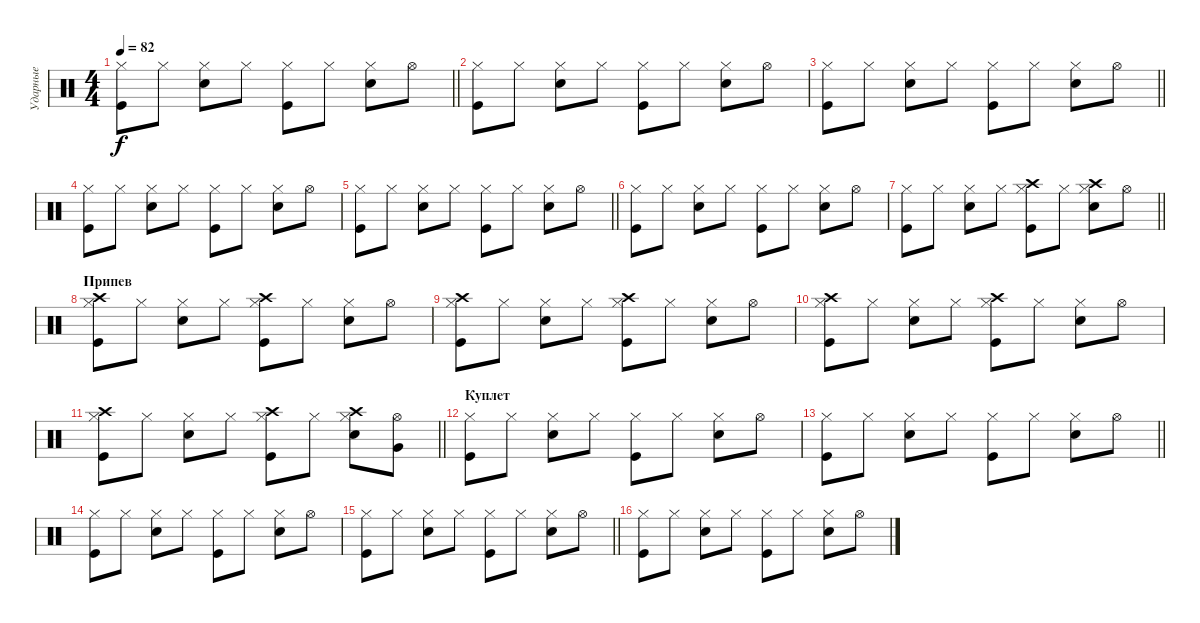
\track ("Ударные" "Ударные") {instrument percussion}
\staff {score}
\articulation defaults
\ts (4 4)
\tempo 82
\clef neutral
\barLineRight lightlight
\ks c
("Kick (hit)" "Hi-Hat (closed)").8{dy f} "Hi-Hat (closed)".8 ("Electric Snare (hit)" "Hi-Hat (closed)").8 "Hi-Hat (closed)".8 ("Kick (hit)" "Hi-Hat (closed)").8 "Hi-Hat (closed)".8 ("Electric Snare (hit)" "Hi-Hat (closed)").8 "Hi-Hat (open)".8 |
("Kick (hit)" "Hi-Hat (closed)").8 "Hi-Hat (closed)".8 ("Electric Snare (hit)" "Hi-Hat (closed)").8 "Hi-Hat (closed)".8 ("Kick (hit)" "Hi-Hat (closed)").8 "Hi-Hat (closed)".8 ("Electric Snare (hit)" "Hi-Hat (closed)").8 "Hi-Hat (open)".8 |
\barLineRight lightlight
("Kick (hit)" "Hi-Hat (closed)").8 "Hi-Hat (closed)".8 ("Electric Snare (hit)" "Hi-Hat (closed)").8 "Hi-Hat (closed)".8 ("Kick (hit)" "Hi-Hat (closed)").8 "Hi-Hat (closed)".8 ("Electric Snare (hit)" "Hi-Hat (closed)").8 "Hi-Hat (open)".8 |
("Kick (hit)" "Hi-Hat (closed)").8 "Hi-Hat (closed)".8 ("Electric Snare (hit)" "Hi-Hat (closed)").8 "Hi-Hat (closed)".8 ("Kick (hit)" "Hi-Hat (closed)").8 "Hi-Hat (closed)".8 ("Electric Snare (hit)" "Hi-Hat (closed)").8 "Hi-Hat (open)".8 |
\barLineRight lightlight
("Kick (hit)" "Hi-Hat (closed)").8 "Hi-Hat (closed)".8 ("Electric Snare (hit)" "Hi-Hat (closed)").8 "Hi-Hat (closed)".8 ("Kick (hit)" "Hi-Hat (closed)").8 "Hi-Hat (closed)".8 ("Electric Snare (hit)" "Hi-Hat (closed)").8 "Hi-Hat (open)".8 |
("Kick (hit)" "Hi-Hat (closed)").8 "Hi-Hat (closed)".8 ("Electric Snare (hit)" "Hi-Hat (closed)").8 "Hi-Hat (closed)".8 ("Kick (hit)" "Hi-Hat (closed)").8 "Hi-Hat (closed)".8 ("Electric Snare (hit)" "Hi-Hat (closed)").8 "Hi-Hat (open)".8 |
\barLineRight lightlight
("Kick (hit)" "Hi-Hat (closed)").8 "Hi-Hat (closed)".8 ("Electric Snare (hit)" "Hi-Hat (closed)").8 "Hi-Hat (closed)".8 ("Kick (hit)" "Crash high (hit)" "Hi-Hat (closed)").8 "Hi-Hat (closed)".8 ("Electric Snare (hit)" "Crash high (hit)" "Hi-Hat (closed)").8 "Hi-Hat (open)".8 |
\section ("" "Припев")
("Kick (hit)" "Crash high (hit)" "Hi-Hat (closed)").8 "Hi-Hat (closed)".8 ("Electric Snare (hit)" "Hi-Hat (closed)").8 "Hi-Hat (closed)".8 ("Kick (hit)" "Crash high (hit)" "Hi-Hat (closed)").8 "Hi-Hat (closed)".8 ("Electric Snare (hit)" "Hi-Hat (closed)").8 "Hi-Hat (open)".8 |
("Kick (hit)" "Crash high (hit)" "Hi-Hat (closed)").8 "Hi-Hat (closed)".8 ("Electric Snare (hit)" "Hi-Hat (closed)").8 "Hi-Hat (closed)".8 ("Kick (hit)" "Crash high (hit)" "Hi-Hat (closed)").8 "Hi-Hat (closed)".8 ("Electric Snare (hit)" "Hi-Hat (closed)").8 "Hi-Hat (open)".8 |
("Kick (hit)" "Crash high (hit)" "Hi-Hat (closed)").8 "Hi-Hat (closed)".8 ("Electric Snare (hit)" "Hi-Hat (closed)").8 "Hi-Hat (closed)".8 ("Kick (hit)" "Crash high (hit)" "Hi-Hat (closed)").8 "Hi-Hat (closed)".8 ("Electric Snare (hit)" "Hi-Hat (closed)").8 "Hi-Hat (open)".8 |
\barLineRight lightlight
("Kick (hit)" "Crash high (hit)" "Hi-Hat (closed)").8 "Hi-Hat (closed)".8 ("Electric Snare (hit)" "Hi-Hat (closed)").8 "Hi-Hat (closed)".8 ("Kick (hit)" "Crash high (hit)" "Hi-Hat (closed)").8 "Hi-Hat (closed)".8 ("Electric Snare (hit)" "Crash high (hit)" "Hi-Hat (closed)").8 ("Very Low Tom (hit)" "Hi-Hat (open)").8 |
\section ("" "Куплет")
("Kick (hit)" "Hi-Hat (closed)").8 "Hi-Hat (closed)".8 ("Electric Snare (hit)" "Hi-Hat (closed)").8 "Hi-Hat (closed)".8 ("Kick (hit)" "Hi-Hat (closed)").8 "Hi-Hat (closed)".8 ("Electric Snare (hit)" "Hi-Hat (closed)").8 "Hi-Hat (open)".8 |
\barLineRight lightlight
("Kick (hit)" "Hi-Hat (closed)").8 "Hi-Hat (closed)".8 ("Electric Snare (hit)" "Hi-Hat (closed)").8 "Hi-Hat (closed)".8 ("Kick (hit)" "Hi-Hat (closed)").8 "Hi-Hat (closed)".8 ("Electric Snare (hit)" "Hi-Hat (closed)").8 "Hi-Hat (open)".8 |
("Kick (hit)" "Hi-Hat (closed)").8 "Hi-Hat (closed)".8 ("Electric Snare (hit)" "Hi-Hat (closed)").8 "Hi-Hat (closed)".8 ("Kick (hit)" "Hi-Hat (closed)").8 "Hi-Hat (closed)".8 ("Electric Snare (hit)" "Hi-Hat (closed)").8 "Hi-Hat (open)".8 |
\barLineRight lightlight
("Kick (hit)" "Hi-Hat (closed)").8 "Hi-Hat (closed)".8 ("Electric Snare (hit)" "Hi-Hat (closed)").8 "Hi-Hat (closed)".8 ("Kick (hit)" "Hi-Hat (closed)").8 "Hi-Hat (closed)".8 ("Electric Snare (hit)" "Hi-Hat (closed)").8 "Hi-Hat (open)".8 |
("Kick (hit)" "Hi-Hat (closed)").8 "Hi-Hat (closed)".8 ("Electric Snare (hit)" "Hi-Hat (closed)").8 "Hi-Hat (closed)".8 ("Kick (hit)" "Hi-Hat (closed)").8 "Hi-Hat (closed)".8 ("Electric Snare (hit)" "Hi-Hat (closed)").8 "Hi-Hat (open)".8
